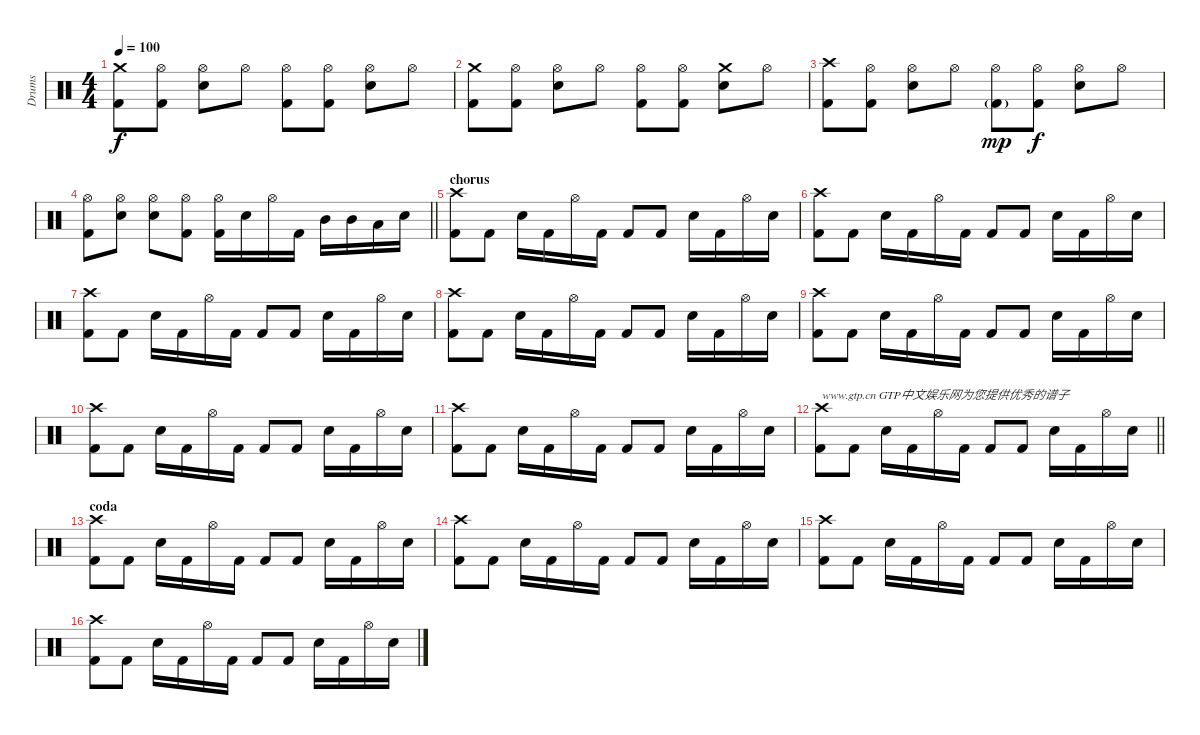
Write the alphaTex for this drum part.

\track ("Drums" "Drums") {instrument percussion}
\staff {score}
\articulation defaults
\ts (4 4)
\tempo 100
\clef neutral
\ks c
("Crash medium (hit)" "Kick (hit) 2").8{dy f} ("Hi-Hat (open)" "Kick (hit) 2").8 ("Hi-Hat (open)" "Snare (hit) 2").8 "Hi-Hat (open)".8 ("Hi-Hat (open)" "Kick (hit) 2").8 ("Hi-Hat (open)" "Kick (hit) 2").8 ("Hi-Hat (open)" "Snare (hit) 2").8 "Hi-Hat (open)".8 |
("Crash medium (hit)" "Kick (hit) 2").8 ("Hi-Hat (open)" "Kick (hit) 2").8 ("Hi-Hat (open)" "Snare (hit) 2").8 "Hi-Hat (open)".8 ("Hi-Hat (open)" "Kick (hit) 2").8 ("Hi-Hat (open)" "Kick (hit) 2").8 ("Crash medium (hit)" "Snare (hit) 2").8 "Hi-Hat (open)".8 |
("Crash high (hit)" "Kick (hit) 2").8 ("Hi-Hat (open)" "Kick (hit) 2").8 ("Hi-Hat (open)" "Snare (hit) 2").8 "Hi-Hat (open)".8 ("Hi-Hat (open)" "Kick (hit) 2"{g}).8{dy mp} ("Hi-Hat (open)" "Kick (hit) 2").8{dy f} ("Hi-Hat (open)" "Snare (hit) 2").8 "Hi-Hat (open)".8 |
\barLineRight lightlight
("Hi-Hat (open)" "Kick (hit) 2").8 ("Hi-Hat (open)" "Snare (hit) 2").8 ("Hi-Hat (open)" "Snare (hit) 2").8 ("Hi-Hat (open)" "Kick (hit) 2").8 ("Hi-Hat (open)" "Kick (hit) 2").16 "Snare (hit) 2".16 "Hi-Hat (open)".16 "Kick (hit) 2".16 "Mid Tom (hit)".16 "Mid Tom (hit)".16 "Low Floor Tom (hit)".16 "Snare (hit) 2".16 |
\section ("" "chorus")
("Crash high (hit)" "Kick (hit) 2").8 "Kick (hit) 2".8 "Snare (hit) 2".16 "Kick (hit) 2".16 "Hi-Hat (open)".16 "Kick (hit) 2".16 "Kick (hit) 2".8 "Kick (hit) 2".8 "Snare (hit) 2".16 "Kick (hit) 2".16 "Hi-Hat (open)".16 "Snare (hit) 2".16 |
("Crash high (hit)" "Kick (hit) 2").8 "Kick (hit) 2".8 "Snare (hit) 2".16 "Kick (hit) 2".16 "Hi-Hat (open)".16 "Kick (hit) 2".16 "Kick (hit) 2".8 "Kick (hit) 2".8 "Snare (hit) 2".16 "Kick (hit) 2".16 "Hi-Hat (open)".16 "Snare (hit) 2".16 |
("Crash high (hit)" "Kick (hit) 2").8 "Kick (hit) 2".8 "Snare (hit) 2".16 "Kick (hit) 2".16 "Hi-Hat (open)".16 "Kick (hit) 2".16 "Kick (hit) 2".8 "Kick (hit) 2".8 "Snare (hit) 2".16 "Kick (hit) 2".16 "Hi-Hat (open)".16 "Snare (hit) 2".16 |
("Crash high (hit)" "Kick (hit) 2").8 "Kick (hit) 2".8 "Snare (hit) 2".16 "Kick (hit) 2".16 "Hi-Hat (open)".16 "Kick (hit) 2".16 "Kick (hit) 2".8 "Kick (hit) 2".8 "Snare (hit) 2".16 "Kick (hit) 2".16 "Hi-Hat (open)".16 "Snare (hit) 2".16 |
("Crash high (hit)" "Kick (hit) 2").8 "Kick (hit) 2".8 "Snare (hit) 2".16 "Kick (hit) 2".16 "Hi-Hat (open)".16 "Kick (hit) 2".16 "Kick (hit) 2".8 "Kick (hit) 2".8 "Snare (hit) 2".16 "Kick (hit) 2".16 "Hi-Hat (open)".16 "Snare (hit) 2".16 |
("Crash high (hit)" "Kick (hit) 2").8 "Kick (hit) 2".8 "Snare (hit) 2".16 "Kick (hit) 2".16 "Hi-Hat (open)".16 "Kick (hit) 2".16 "Kick (hit) 2".8 "Kick (hit) 2".8 "Snare (hit) 2".16 "Kick (hit) 2".16 "Hi-Hat (open)".16 "Snare (hit) 2".16 |
("Crash high (hit)" "Kick (hit) 2").8 "Kick (hit) 2".8 "Snare (hit) 2".16 "Kick (hit) 2".16 "Hi-Hat (open)".16 "Kick (hit) 2".16 "Kick (hit) 2".8 "Kick (hit) 2".8 "Snare (hit) 2".16 "Kick (hit) 2".16 "Hi-Hat (open)".16 "Snare (hit) 2".16 |
\barLineRight lightlight
("Crash high (hit)" "Kick (hit) 2").8{txt "www.gtp.cn GTP中文娱乐网为您提供优秀的谱子"} "Kick (hit) 2".8 "Snare (hit) 2".16 "Kick (hit) 2".16 "Hi-Hat (open)".16 "Kick (hit) 2".16 "Kick (hit) 2".8 "Kick (hit) 2".8 "Snare (hit) 2".16 "Kick (hit) 2".16 "Hi-Hat (open)".16 "Snare (hit) 2".16 |
\section ("" "coda")
("Crash high (hit)" "Kick (hit) 2").8 "Kick (hit) 2".8 "Snare (hit) 2".16 "Kick (hit) 2".16 "Hi-Hat (open)".16 "Kick (hit) 2".16 "Kick (hit) 2".8 "Kick (hit) 2".8 "Snare (hit) 2".16 "Kick (hit) 2".16 "Hi-Hat (open)".16 "Snare (hit) 2".16 |
("Crash high (hit)" "Kick (hit) 2").8 "Kick (hit) 2".8 "Snare (hit) 2".16 "Kick (hit) 2".16 "Hi-Hat (open)".16 "Kick (hit) 2".16 "Kick (hit) 2".8 "Kick (hit) 2".8 "Snare (hit) 2".16 "Kick (hit) 2".16 "Hi-Hat (open)".16 "Snare (hit) 2".16 |
("Crash high (hit)" "Kick (hit) 2").8 "Kick (hit) 2".8 "Snare (hit) 2".16 "Kick (hit) 2".16 "Hi-Hat (open)".16 "Kick (hit) 2".16 "Kick (hit) 2".8 "Kick (hit) 2".8 "Snare (hit) 2".16 "Kick (hit) 2".16 "Hi-Hat (open)".16 "Snare (hit) 2".16 |
("Crash high (hit)" "Kick (hit) 2").8 "Kick (hit) 2".8 "Snare (hit) 2".16 "Kick (hit) 2".16 "Hi-Hat (open)".16 "Kick (hit) 2".16 "Kick (hit) 2".8 "Kick (hit) 2".8 "Snare (hit) 2".16 "Kick (hit) 2".16 "Hi-Hat (open)".16 "Snare (hit) 2".16
